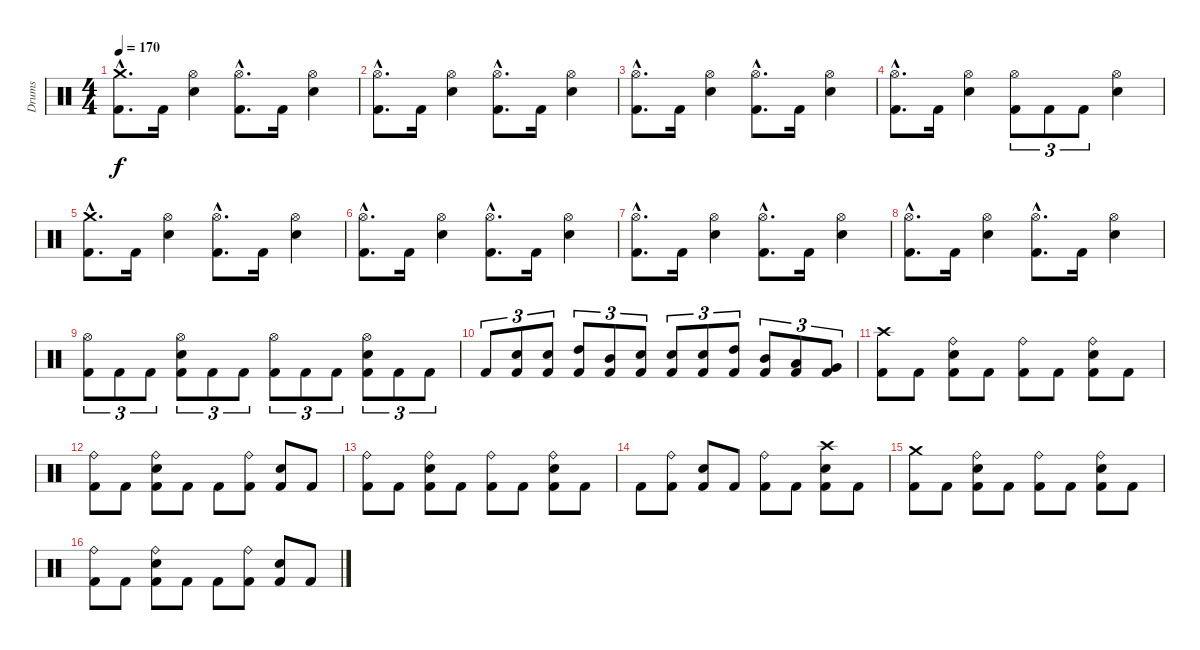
\track ("Drums" "Drums") {instrument percussion}
\staff {score}
\articulation defaults
\ts (4 4)
\tempo 170
\clef neutral
\ks c
("Kick (hit) 2"{hac} "Crash medium (hit)"{hac}).8{d dy f} "Kick (hit) 2".16 ("Electric Snare (hit)" "Hi-Hat (open)").4 ("Kick (hit) 2"{hac} "Hi-Hat (open)"{hac}).8{d} "Kick (hit) 2".16 ("Electric Snare (hit)" "Hi-Hat (open)").4 |
("Kick (hit) 2"{hac} "Hi-Hat (open)"{hac}).8{d} "Kick (hit) 2".16 ("Electric Snare (hit)" "Hi-Hat (open)").4 ("Kick (hit) 2"{hac} "Hi-Hat (open)"{hac}).8{d} "Kick (hit) 2".16 ("Electric Snare (hit)" "Hi-Hat (open)").4 |
("Kick (hit) 2"{hac} "Hi-Hat (open)"{hac}).8{d} "Kick (hit) 2".16 ("Electric Snare (hit)" "Hi-Hat (open)").4 ("Kick (hit) 2"{hac} "Hi-Hat (open)"{hac}).8{d} "Kick (hit) 2".16 ("Electric Snare (hit)" "Hi-Hat (open)").4 |
("Kick (hit) 2"{hac} "Hi-Hat (open)"{hac}).8{d} "Kick (hit) 2".16 ("Electric Snare (hit)" "Hi-Hat (open)").4 ("Kick (hit) 2" "Hi-Hat (open)").8{tu (3 2)} "Kick (hit) 2".8{tu (3 2)} "Kick (hit) 2".8{tu (3 2)} ("Electric Snare (hit)" "Hi-Hat (open)").4 |
("Kick (hit) 2"{hac} "Crash medium (hit)"{hac}).8{d} "Kick (hit) 2".16 ("Electric Snare (hit)" "Hi-Hat (open)").4 ("Kick (hit) 2"{hac} "Hi-Hat (open)"{hac}).8{d} "Kick (hit) 2".16 ("Electric Snare (hit)" "Hi-Hat (open)").4 |
("Kick (hit) 2"{hac} "Hi-Hat (open)"{hac}).8{d} "Kick (hit) 2".16 ("Electric Snare (hit)" "Hi-Hat (open)").4 ("Kick (hit) 2"{hac} "Hi-Hat (open)"{hac}).8{d} "Kick (hit) 2".16 ("Electric Snare (hit)" "Hi-Hat (open)").4 |
("Kick (hit) 2"{hac} "Hi-Hat (open)"{hac}).8{d} "Kick (hit) 2".16 ("Electric Snare (hit)" "Hi-Hat (open)").4 ("Kick (hit) 2"{hac} "Hi-Hat (open)"{hac}).8{d} "Kick (hit) 2".16 ("Electric Snare (hit)" "Hi-Hat (open)").4 |
("Kick (hit) 2"{hac} "Hi-Hat (open)"{hac}).8{d} "Kick (hit) 2".16 ("Electric Snare (hit)" "Hi-Hat (open)").4 ("Kick (hit) 2"{hac} "Hi-Hat (open)"{hac}).8{d} "Kick (hit) 2".16 ("Electric Snare (hit)" "Hi-Hat (open)").4 |
("Kick (hit) 2" "Hi-Hat (open)").8{tu (3 2)} "Kick (hit) 2".8{tu (3 2)} "Kick (hit) 2".8{tu (3 2)} ("Kick (hit) 2" "Electric Snare (hit)" "Hi-Hat (open)").8{tu (3 2)} "Kick (hit) 2".8{tu (3 2)} "Kick (hit) 2".8{tu (3 2)} ("Kick (hit) 2" "Hi-Hat (open)").8{tu (3 2)} "Kick (hit) 2".8{tu (3 2)} "Kick (hit) 2".8{tu (3 2)} ("Kick (hit) 2" "Electric Snare (hit)" "Hi-Hat (open)").8{tu (3 2)} "Kick (hit) 2".8{tu (3 2)} "Kick (hit) 2".8{tu (3 2)} |
"Kick (hit) 2".8{tu (3 2)} ("Kick (hit) 2" "Electric Snare (hit)").8{tu (3 2)} ("Kick (hit) 2" "Electric Snare (hit)").8{tu (3 2)} ("Kick (hit) 2" "High Tom (hit)").8{tu (3 2)} ("Kick (hit) 2" "Mid Tom (hit)").8{tu (3 2)} ("Kick (hit) 2" "Electric Snare (hit)").8{tu (3 2)} ("Kick (hit) 2" "Electric Snare (hit)").8{tu (3 2)} ("Kick (hit) 2" "Electric Snare (hit)").8{tu (3 2)} ("Kick (hit) 2" "High Tom (hit)").8{tu (3 2)} ("Kick (hit) 2" "Mid Tom (hit)").8{tu (3 2)} ("Kick (hit) 2" "Low Tom (hit)").8{tu (3 2)} ("Kick (hit) 2" "Very Low Tom (hit)").8{tu (3 2)} |
\section ("" "")
("Kick (hit) 2" "Crash high (hit)").8 "Kick (hit) 2".8 ("Kick (hit) 2" "Electric Snare (hit)" "Ride (bell)").8 "Kick (hit) 2".8 ("Kick (hit) 2" "Ride (bell)").8 "Kick (hit) 2".8 ("Kick (hit) 2" "Electric Snare (hit)" "Ride (bell)").8 "Kick (hit) 2".8 |
("Kick (hit) 2" "Ride (bell)").8 "Kick (hit) 2".8 ("Kick (hit) 2" "Electric Snare (hit)" "Ride (bell)").8 "Kick (hit) 2".8 "Kick (hit) 2".8 ("Kick (hit) 2" "Ride (bell)").8 ("Kick (hit) 2" "Electric Snare (hit)").8 "Kick (hit) 2".8 |
("Kick (hit) 2" "Ride (bell)").8 "Kick (hit) 2".8 ("Kick (hit) 2" "Electric Snare (hit)" "Ride (bell)").8 "Kick (hit) 2".8 ("Kick (hit) 2" "Ride (bell)").8 "Kick (hit) 2".8 ("Kick (hit) 2" "Electric Snare (hit)" "Ride (bell)").8 "Kick (hit) 2".8 |
"Kick (hit) 2".8 ("Kick (hit) 2" "Ride (bell)").8 ("Kick (hit) 2" "Electric Snare (hit)").8 "Kick (hit) 2".8 ("Kick (hit) 2" "Ride (bell)").8 "Kick (hit) 2".8 ("Kick (hit) 2" "Electric Snare (hit)" "Crash high (hit)").8 "Kick (hit) 2".8 |
("Kick (hit) 2" "Crash medium (hit)").8 "Kick (hit) 2".8 ("Kick (hit) 2" "Electric Snare (hit)" "Ride (bell)").8 "Kick (hit) 2".8 ("Kick (hit) 2" "Ride (bell)").8 "Kick (hit) 2".8 ("Kick (hit) 2" "Electric Snare (hit)" "Ride (bell)").8 "Kick (hit) 2".8 |
("Kick (hit) 2" "Ride (bell)").8 "Kick (hit) 2".8 ("Kick (hit) 2" "Electric Snare (hit)" "Ride (bell)").8 "Kick (hit) 2".8 "Kick (hit) 2".8 ("Kick (hit) 2" "Ride (bell)").8 ("Kick (hit) 2" "Electric Snare (hit)").8 "Kick (hit) 2".8
